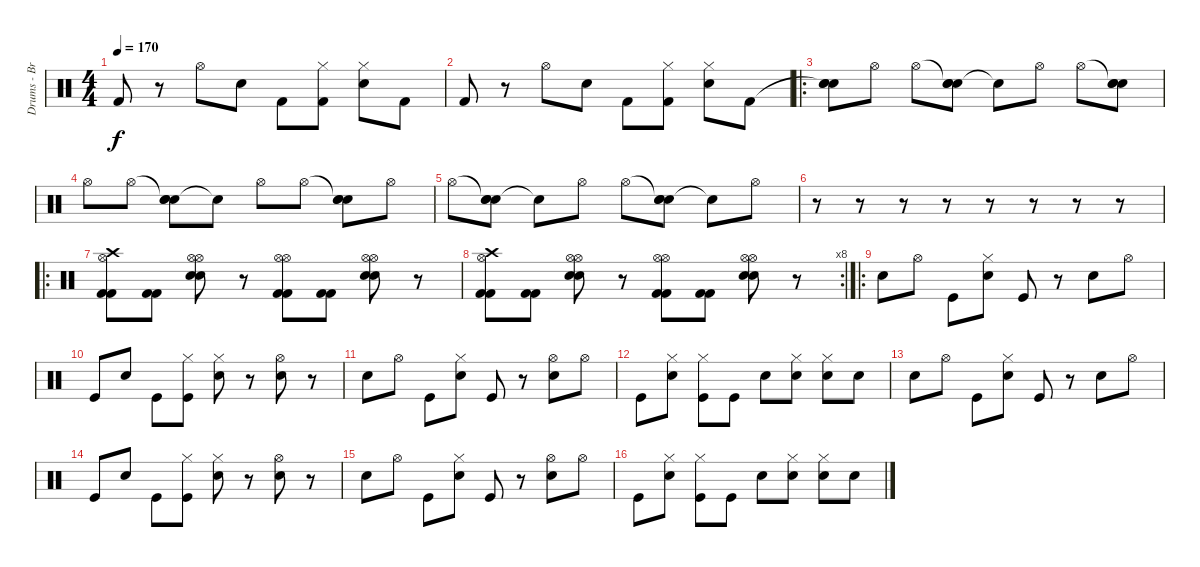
\track ("Drums - Branden Steineckert" "Drums - Br") {instrument percussion}
\staff {score}
\articulation defaults
\ts (4 4)
\tempo 170
\clef neutral
\ks c "Kick (hit) 2".8{dy f}
r.8 "Hi-Hat (open)".8 "Electric Snare (hit)".8 "Kick (hit) 2".8 ("Hi-Hat (closed)" "Kick (hit) 2").8 ("Hi-Hat (closed)" "Electric Snare (hit)").8 "Kick (hit) 2".8 |
"Kick (hit) 2".8 r.8 "Hi-Hat (open)".8 "Electric Snare (hit)".8 "Kick (hit) 2".8 ("Hi-Hat (closed)" "Kick (hit) 2").8 ("Hi-Hat (closed)" "Electric Snare (hit)").8 "Kick (hit) 2".8 |
\ro
("Snare (hit)"{t} "Electric Snare (hit)" "Electric Snare (hit)").8 "Hi-Hat (open)".8 "Hi-Hat (open)".8 ("Snare (hit)"{t} "Electric Snare (hit)" "Electric Snare (hit)").8 "Snare (hit)"{t}.8 "Hi-Hat (open)".8 "Hi-Hat (open)".8 ("Snare (hit)"{t} "Electric Snare (hit)" "Electric Snare (hit)").8 |
"Hi-Hat (open)".8 "Hi-Hat (open)".8 ("Snare (hit)"{t} "Electric Snare (hit)" "Electric Snare (hit)").8 "Snare (hit)"{t}.8 "Hi-Hat (open)".8 "Hi-Hat (open)".8 ("Snare (hit)"{t} "Electric Snare (hit)" "Electric Snare (hit)").8 "Hi-Hat (open)".8 |
"Hi-Hat (open)".8 ("Snare (hit)"{t} "Electric Snare (hit)" "Electric Snare (hit)").8 "Snare (hit)"{t}.8 "Hi-Hat (open)".8 "Hi-Hat (open)".8 ("Snare (hit)"{t} "Electric Snare (hit)" "Electric Snare (hit)").8 "Snare (hit)"{t}.8 "Hi-Hat (open)".8 |
r.8 r.8 r.8 r.8 r.8 r.8 r.8 r.8 |
\ro
("Hi-Hat (open)" "Crash high (hit)" "Kick (hit) 2" "Kick (hit) 2").8 ("Kick (hit) 2" "Kick (hit) 2").8 ("Hi-Hat (open)" "Hi-Hat (open)" "Electric Snare (hit)" "Electric Snare (hit)").8 r.8 ("Hi-Hat (open)" "Hi-Hat (open)" "Kick (hit) 2" "Kick (hit) 2").8 ("Kick (hit) 2" "Kick (hit) 2").8 ("Hi-Hat (open)" "Hi-Hat (open)" "Electric Snare (hit)" "Electric Snare (hit)").8 r.8 |
\rc 8
("Hi-Hat (open)" "Crash high (hit)" "Kick (hit) 2" "Kick (hit) 2").8 ("Kick (hit) 2" "Kick (hit) 2").8 ("Hi-Hat (open)" "Hi-Hat (open)" "Electric Snare (hit)" "Electric Snare (hit)").8 r.8 ("Hi-Hat (open)" "Hi-Hat (open)" "Kick (hit) 2" "Kick (hit) 2").8 ("Kick (hit) 2" "Kick (hit) 2").8 ("Hi-Hat (open)" "Hi-Hat (open)" "Electric Snare (hit)" "Electric Snare (hit)").8 r.8 |
\ro "Electric Snare (hit)".8 "Hi-Hat (open)".8 "Kick (hit)".8
("Hi-Hat (closed)" "Electric Snare (hit)").8 "Kick (hit)".8 r.8 "Electric Snare (hit)".8 "Hi-Hat (open)".8 |
"Kick (hit)".8 "Electric Snare (hit)".8 "Kick (hit)".8 ("Hi-Hat (closed)" "Kick (hit)").8 ("Hi-Hat (closed)" "Electric Snare (hit)").8 r.8 ("Hi-Hat (open)" "Electric Snare (hit)").8 r.8 |
"Electric Snare (hit)".8 "Hi-Hat (open)".8 "Kick (hit)".8 ("Hi-Hat (closed)" "Electric Snare (hit)").8 "Kick (hit)".8 r.8 ("Hi-Hat (open)" "Electric Snare (hit)").8 "Hi-Hat (open)".8 |
"Kick (hit)".8 ("Hi-Hat (closed)" "Electric Snare (hit)").8 ("Hi-Hat (closed)" "Kick (hit)").8 "Kick (hit)".8 "Electric Snare (hit)".8 ("Hi-Hat (closed)" "Electric Snare (hit)").8 ("Hi-Hat (closed)" "Electric Snare (hit)").8 "Electric Snare (hit)".8 |
"Electric Snare (hit)".8 "Hi-Hat (open)".8 "Kick (hit)".8 ("Hi-Hat (closed)" "Electric Snare (hit)").8 "Kick (hit)".8 r.8 "Electric Snare (hit)".8 "Hi-Hat (open)".8 |
"Kick (hit)".8 "Electric Snare (hit)".8 "Kick (hit)".8 ("Hi-Hat (closed)" "Kick (hit)").8 ("Hi-Hat (closed)" "Electric Snare (hit)").8 r.8 ("Hi-Hat (open)" "Electric Snare (hit)").8 r.8 |
"Electric Snare (hit)".8 "Hi-Hat (open)".8 "Kick (hit)".8 ("Hi-Hat (closed)" "Electric Snare (hit)").8 "Kick (hit)".8 r.8 ("Hi-Hat (open)" "Electric Snare (hit)").8 "Hi-Hat (open)".8 |
"Kick (hit)".8 ("Hi-Hat (closed)" "Electric Snare (hit)").8 ("Hi-Hat (closed)" "Kick (hit)").8 "Kick (hit)".8 "Electric Snare (hit)".8 ("Hi-Hat (closed)" "Electric Snare (hit)").8 ("Hi-Hat (closed)" "Electric Snare (hit)").8 "Electric Snare (hit)".8
